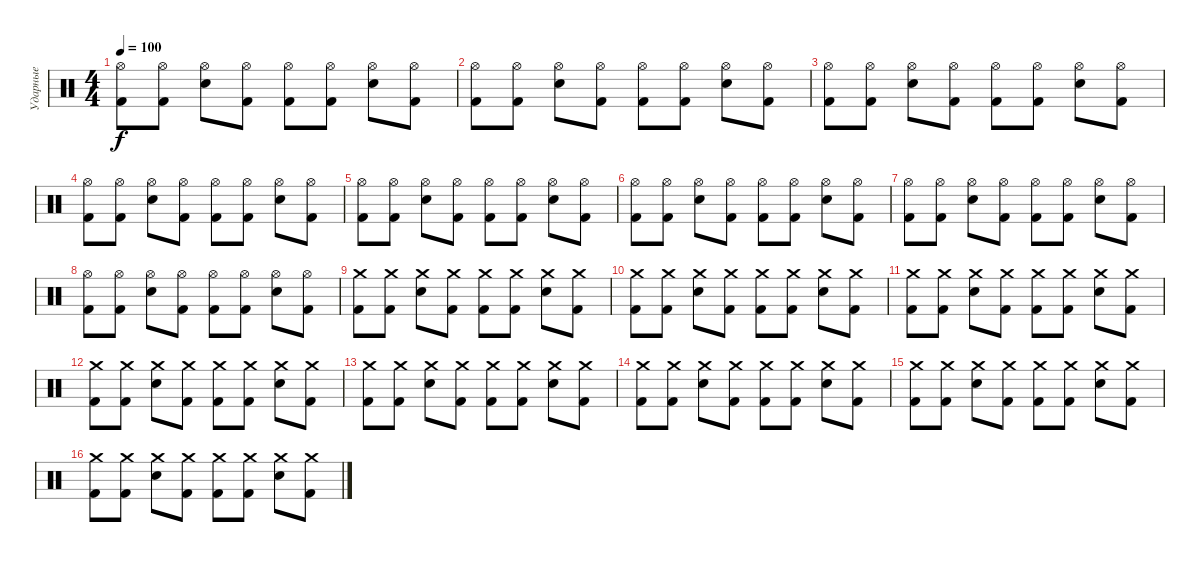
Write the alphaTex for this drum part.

\track ("Ударные" "Ударные") {instrument percussion}
\staff {score}
\articulation defaults
\ts (4 4)
\tempo 100
\clef neutral
\ks c
("Hi-Hat (open)" "Kick (hit) 2").8{dy f} ("Hi-Hat (open)" "Kick (hit) 2").8 ("Hi-Hat (open)" "Snare (hit) 2").8 ("Hi-Hat (open)" "Kick (hit) 2").8 ("Hi-Hat (open)" "Kick (hit) 2").8 ("Hi-Hat (open)" "Kick (hit) 2").8 ("Hi-Hat (open)" "Snare (hit) 2").8 ("Hi-Hat (open)" "Kick (hit) 2").8 |
("Hi-Hat (open)" "Kick (hit) 2").8 ("Hi-Hat (open)" "Kick (hit) 2").8 ("Hi-Hat (open)" "Snare (hit) 2").8 ("Hi-Hat (open)" "Kick (hit) 2").8 ("Hi-Hat (open)" "Kick (hit) 2").8 ("Hi-Hat (open)" "Kick (hit) 2").8 ("Hi-Hat (open)" "Snare (hit) 2").8 ("Hi-Hat (open)" "Kick (hit) 2").8 |
("Hi-Hat (open)" "Kick (hit) 2").8 ("Hi-Hat (open)" "Kick (hit) 2").8 ("Hi-Hat (open)" "Snare (hit) 2").8 ("Hi-Hat (open)" "Kick (hit) 2").8 ("Hi-Hat (open)" "Kick (hit) 2").8 ("Hi-Hat (open)" "Kick (hit) 2").8 ("Hi-Hat (open)" "Snare (hit) 2").8 ("Hi-Hat (open)" "Kick (hit) 2").8 |
("Hi-Hat (open)" "Kick (hit) 2").8 ("Hi-Hat (open)" "Kick (hit) 2").8 ("Hi-Hat (open)" "Snare (hit) 2").8 ("Hi-Hat (open)" "Kick (hit) 2").8 ("Hi-Hat (open)" "Kick (hit) 2").8 ("Hi-Hat (open)" "Kick (hit) 2").8 ("Hi-Hat (open)" "Snare (hit) 2").8 ("Hi-Hat (open)" "Kick (hit) 2").8 |
("Hi-Hat (open)" "Kick (hit) 2").8 ("Hi-Hat (open)" "Kick (hit) 2").8 ("Hi-Hat (open)" "Snare (hit) 2").8 ("Hi-Hat (open)" "Kick (hit) 2").8 ("Hi-Hat (open)" "Kick (hit) 2").8 ("Hi-Hat (open)" "Kick (hit) 2").8 ("Hi-Hat (open)" "Snare (hit) 2").8 ("Hi-Hat (open)" "Kick (hit) 2").8 |
("Hi-Hat (open)" "Kick (hit) 2").8 ("Hi-Hat (open)" "Kick (hit) 2").8 ("Hi-Hat (open)" "Snare (hit) 2").8 ("Hi-Hat (open)" "Kick (hit) 2").8 ("Hi-Hat (open)" "Kick (hit) 2").8 ("Hi-Hat (open)" "Kick (hit) 2").8 ("Hi-Hat (open)" "Snare (hit) 2").8 ("Hi-Hat (open)" "Kick (hit) 2").8 |
("Hi-Hat (open)" "Kick (hit) 2").8 ("Hi-Hat (open)" "Kick (hit) 2").8 ("Hi-Hat (open)" "Snare (hit) 2").8 ("Hi-Hat (open)" "Kick (hit) 2").8 ("Hi-Hat (open)" "Kick (hit) 2").8 ("Hi-Hat (open)" "Kick (hit) 2").8 ("Hi-Hat (open)" "Snare (hit) 2").8 ("Hi-Hat (open)" "Kick (hit) 2").8 |
("Hi-Hat (open)" "Kick (hit) 2").8 ("Hi-Hat (open)" "Kick (hit) 2").8 ("Hi-Hat (open)" "Snare (hit) 2").8 ("Hi-Hat (open)" "Kick (hit) 2").8 ("Hi-Hat (open)" "Kick (hit) 2").8 ("Hi-Hat (open)" "Kick (hit) 2").8 ("Hi-Hat (open)" "Snare (hit) 2").8 ("Hi-Hat (open)" "Kick (hit) 2").8 |
("Crash medium (hit)" "Kick (hit) 2").8 ("Crash medium (hit)" "Kick (hit) 2").8 ("Crash medium (hit)" "Snare (hit) 2").8 ("Crash medium (hit)" "Kick (hit) 2").8 ("Crash medium (hit)" "Kick (hit) 2").8 ("Crash medium (hit)" "Kick (hit) 2").8 ("Crash medium (hit)" "Snare (hit) 2").8 ("Crash medium (hit)" "Kick (hit) 2").8 |
("Crash medium (hit)" "Kick (hit) 2").8 ("Crash medium (hit)" "Kick (hit) 2").8 ("Crash medium (hit)" "Snare (hit) 2").8 ("Crash medium (hit)" "Kick (hit) 2").8 ("Crash medium (hit)" "Kick (hit) 2").8 ("Crash medium (hit)" "Kick (hit) 2").8 ("Crash medium (hit)" "Snare (hit) 2").8 ("Crash medium (hit)" "Kick (hit) 2").8 |
("Crash medium (hit)" "Kick (hit) 2").8 ("Crash medium (hit)" "Kick (hit) 2").8 ("Crash medium (hit)" "Snare (hit) 2").8 ("Crash medium (hit)" "Kick (hit) 2").8 ("Crash medium (hit)" "Kick (hit) 2").8 ("Crash medium (hit)" "Kick (hit) 2").8 ("Crash medium (hit)" "Snare (hit) 2").8 ("Crash medium (hit)" "Kick (hit) 2").8 |
("Crash medium (hit)" "Kick (hit) 2").8 ("Crash medium (hit)" "Kick (hit) 2").8 ("Crash medium (hit)" "Snare (hit) 2").8 ("Crash medium (hit)" "Kick (hit) 2").8 ("Crash medium (hit)" "Kick (hit) 2").8 ("Crash medium (hit)" "Kick (hit) 2").8 ("Crash medium (hit)" "Snare (hit) 2").8 ("Crash medium (hit)" "Kick (hit) 2").8 |
("Crash medium (hit)" "Kick (hit) 2").8 ("Crash medium (hit)" "Kick (hit) 2").8 ("Crash medium (hit)" "Snare (hit) 2").8 ("Crash medium (hit)" "Kick (hit) 2").8 ("Crash medium (hit)" "Kick (hit) 2").8 ("Crash medium (hit)" "Kick (hit) 2").8 ("Crash medium (hit)" "Snare (hit) 2").8 ("Crash medium (hit)" "Kick (hit) 2").8 |
("Crash medium (hit)" "Kick (hit) 2").8 ("Crash medium (hit)" "Kick (hit) 2").8 ("Crash medium (hit)" "Snare (hit) 2").8 ("Crash medium (hit)" "Kick (hit) 2").8 ("Crash medium (hit)" "Kick (hit) 2").8 ("Crash medium (hit)" "Kick (hit) 2").8 ("Crash medium (hit)" "Snare (hit) 2").8 ("Crash medium (hit)" "Kick (hit) 2").8 |
("Crash medium (hit)" "Kick (hit) 2").8 ("Crash medium (hit)" "Kick (hit) 2").8 ("Crash medium (hit)" "Snare (hit) 2").8 ("Crash medium (hit)" "Kick (hit) 2").8 ("Crash medium (hit)" "Kick (hit) 2").8 ("Crash medium (hit)" "Kick (hit) 2").8 ("Crash medium (hit)" "Snare (hit) 2").8 ("Crash medium (hit)" "Kick (hit) 2").8 |
("Crash medium (hit)" "Kick (hit) 2").8 ("Crash medium (hit)" "Kick (hit) 2").8 ("Crash medium (hit)" "Snare (hit) 2").8 ("Crash medium (hit)" "Kick (hit) 2").8 ("Crash medium (hit)" "Kick (hit) 2").8 ("Crash medium (hit)" "Kick (hit) 2").8 ("Crash medium (hit)" "Snare (hit) 2").8 ("Crash medium (hit)" "Kick (hit) 2").8
